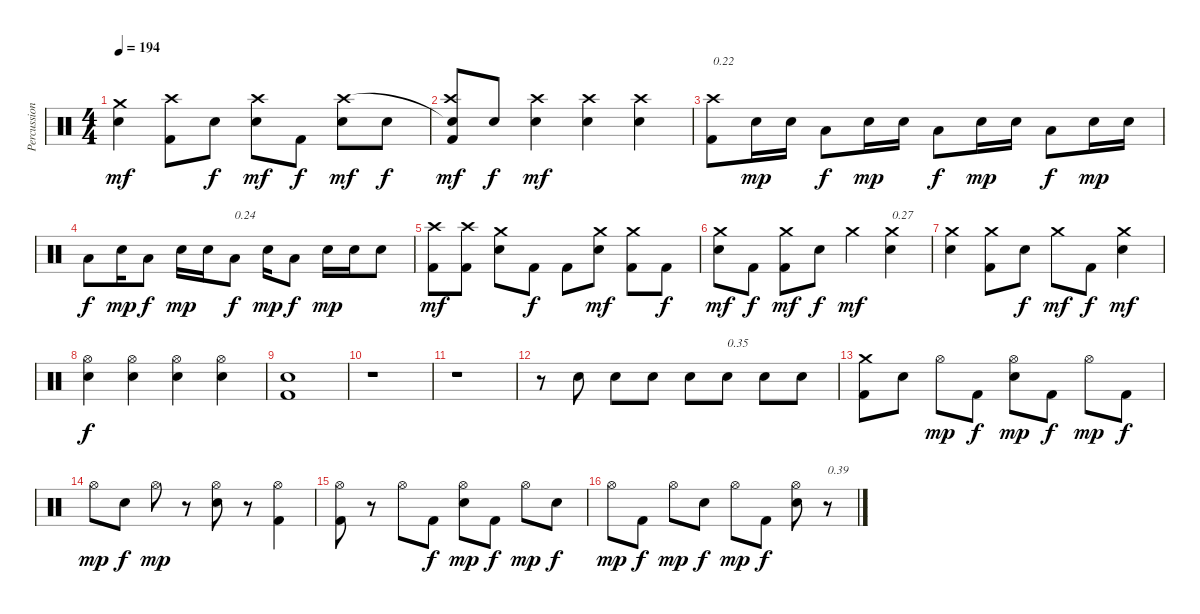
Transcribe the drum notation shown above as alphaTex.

\track ("Percussions" "Percussion") {instrument percussion}
\staff {score}
\articulation defaults
\ts (4 4)
\tempo 194
\clef neutral
\ks c
("Electric Snare (hit)" "Crash medium (hit)").4{dy mf} ("Kick (hit) 2" "Crash high (hit)").8 "Electric Snare (hit)".8{dy f} ("Electric Snare (hit)" "Crash high (hit)").8{dy mf} "Kick (hit) 2".8{dy f} ("Electric Snare (hit)" "Crash high (hit)").8{dy mf} "Electric Snare (hit)".8{dy f} |
("Kick (hit) 2" "Snare (hit)"{t} "Crash high (hit)").8{dy mf} "Electric Snare (hit)".8{dy f} ("Electric Snare (hit)" "Crash high (hit)").4{dy mf} ("Electric Snare (hit)" "Crash high (hit)").4 ("Electric Snare (hit)" "Crash high (hit)").4 |
("Kick (hit) 2" "Crash high (hit)").8{txt "0.22"} "Electric Snare (hit)".16{dy mp} "Electric Snare (hit)".16 "Low Floor Tom (hit)".8{dy f} "Electric Snare (hit)".16{dy mp} "Electric Snare (hit)".16 "Low Floor Tom (hit)".8{dy f} "Electric Snare (hit)".16{dy mp} "Electric Snare (hit)".16 "Low Floor Tom (hit)".8{dy f} "Electric Snare (hit)".16{dy mp} "Electric Snare (hit)".16 |
"Low Floor Tom (hit)".8{dy f} "Electric Snare (hit)".16{dy mp} "Low Floor Tom (hit)".8{dy f} "Electric Snare (hit)".16{dy mp} "Electric Snare (hit)".16 "Low Floor Tom (hit)".8{txt "0.24" dy f} "Electric Snare (hit)".16{dy mp} "Low Floor Tom (hit)".8{dy f} "Electric Snare (hit)".16{dy mp} "Electric Snare (hit)".16 "Electric Snare (hit)".8 |
("Kick (hit) 2" "Crash high (hit)").8{dy mf} ("Kick (hit) 2" "Crash high (hit)").8 ("Electric Snare (hit)" "Crash medium (hit)").8 "Kick (hit) 2".8{dy f} "Kick (hit) 2".8 ("Electric Snare (hit)" "Crash medium (hit)").8{dy mf} ("Kick (hit) 2" "Crash medium (hit)").8 "Kick (hit) 2".8{dy f} |
("Electric Snare (hit)" "Crash medium (hit)").8{dy mf} "Kick (hit) 2".8{dy f} ("Kick (hit) 2" "Crash medium (hit)").8{dy mf} "Electric Snare (hit)".8{dy f} "Crash medium (hit)".4{dy mf} ("Electric Snare (hit)" "Crash medium (hit)").4{txt "0.27"} |
("Electric Snare (hit)" "Crash medium (hit)").4 ("Kick (hit) 2" "Crash medium (hit)").8 "Electric Snare (hit)".8{dy f} "Crash medium (hit)".8{dy mf} "Kick (hit) 2".8{dy f} ("Electric Snare (hit)" "Crash medium (hit)").4{dy mf} |
("Electric Snare (hit)" "Hi-Hat (open)").4{dy f} ("Electric Snare (hit)" "Hi-Hat (open)").4 ("Electric Snare (hit)" "Hi-Hat (open)").4 ("Electric Snare (hit)" "Hi-Hat (open)").4 |
("Kick (hit) 2" "Electric Snare (hit)").1 |
r.1 |
r.1 |
r.8 "Electric Snare (hit)".8 "Electric Snare (hit)".8 "Electric Snare (hit)".8 "Electric Snare (hit)".8 "Electric Snare (hit)".8{txt "0.35"} "Electric Snare (hit)".8 "Electric Snare (hit)".8 |
("Kick (hit) 2" "Crash medium (hit)").8 "Electric Snare (hit)".8 "Hi-Hat (open)".8{dy mp} "Kick (hit) 2".8{dy f} ("Electric Snare (hit)" "Hi-Hat (open)").8{dy mp} "Kick (hit) 2".8{dy f} "Hi-Hat (open)".8{dy mp} "Kick (hit) 2".8{dy f} |
"Hi-Hat (open)".8{dy mp} "Electric Snare (hit)".8{dy f} "Hi-Hat (open)".8{dy mp} r.8 ("Electric Snare (hit)" "Hi-Hat (open)").8 r.8 ("Kick (hit) 2" "Hi-Hat (open)").4 |
("Kick (hit) 2" "Hi-Hat (open)").8 r.8 "Hi-Hat (open)".8 "Kick (hit) 2".8{dy f} ("Electric Snare (hit)" "Hi-Hat (open)").8{dy mp} "Kick (hit) 2".8{dy f} "Hi-Hat (open)".8{dy mp} "Electric Snare (hit)".8{dy f} |
"Hi-Hat (open)".8{dy mp} "Kick (hit) 2".8{dy f} "Hi-Hat (open)".8{dy mp} "Electric Snare (hit)".8{dy f} "Hi-Hat (open)".8{dy mp} "Kick (hit) 2".8{dy f} ("Electric Snare (hit)" "Hi-Hat (open)").8 r.8{txt "0.39"}
